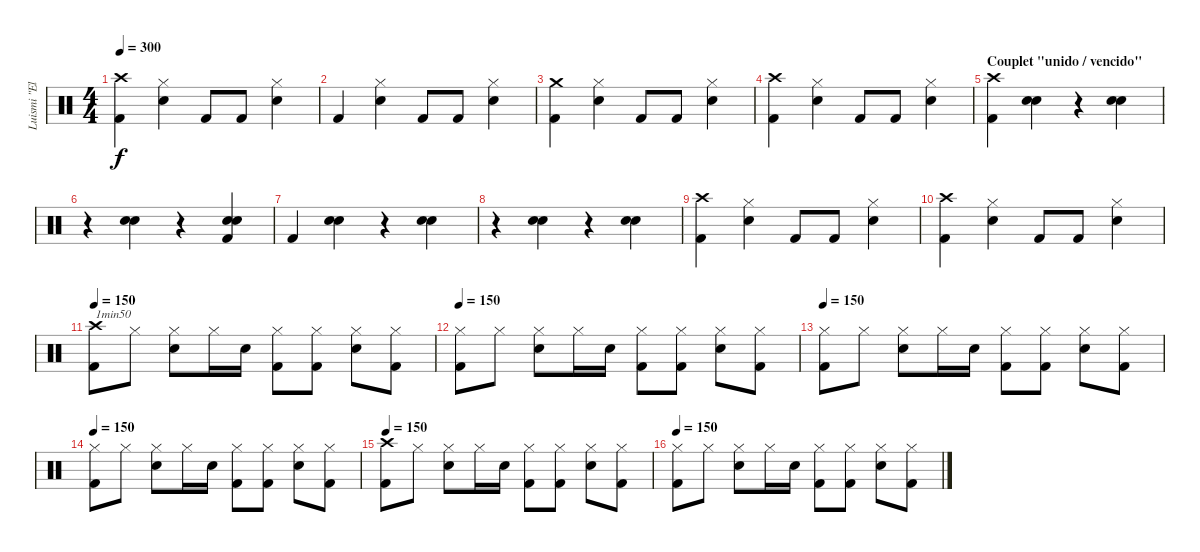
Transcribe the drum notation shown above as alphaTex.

\track ("Luismi \"El Papi\"" "Luismi \"El") {instrument percussion}
\staff {score}
\articulation defaults
\ts (4 4)
\tempo 300
\clef neutral
\ks c
("Crash high (hit)" "Kick (hit) 2").4{dy f} ("Hi-Hat (closed)" "Snare (hit) 2").4 "Kick (hit) 2".8 "Kick (hit) 2".8 ("Hi-Hat (closed)" "Snare (hit) 2").4 |
"Kick (hit) 2".4 ("Hi-Hat (closed)" "Snare (hit) 2").4 "Kick (hit) 2".8 "Kick (hit) 2".8 ("Hi-Hat (closed)" "Snare (hit) 2").4 |
("Crash medium (hit)" "Kick (hit) 2").4 ("Hi-Hat (closed)" "Snare (hit) 2").4 "Kick (hit) 2".8 "Kick (hit) 2".8 ("Hi-Hat (closed)" "Snare (hit) 2").4 |
("Crash high (hit)" "Kick (hit) 2").4 ("Hi-Hat (closed)" "Snare (hit) 2").4 "Kick (hit) 2".8 "Kick (hit) 2".8 ("Hi-Hat (closed)" "Snare (hit) 2").4 |
\section ("" "Couplet \"unido / vencido\"")
("Crash high (hit)" "Kick (hit) 2").4 ("Snare (hit) 2" "Snare (hit) 2").4 r.4 ("Snare (hit) 2" "Snare (hit) 2").4 |
r.4 ("Snare (hit) 2" "Snare (hit) 2").4 r.4 ("Kick (hit) 2" "Snare (hit) 2" "Snare (hit) 2").4 |
"Kick (hit) 2".4 ("Snare (hit) 2" "Snare (hit) 2").4 r.4 ("Snare (hit) 2" "Snare (hit) 2").4 |
r.4 ("Snare (hit) 2" "Snare (hit) 2").4 r.4 ("Snare (hit) 2" "Snare (hit) 2").4 |
("Crash high (hit)" "Kick (hit) 2").4 ("Hi-Hat (closed)" "Snare (hit) 2").4 "Kick (hit) 2".8 "Kick (hit) 2".8 ("Hi-Hat (closed)" "Snare (hit) 2").4 |
("Crash high (hit)" "Kick (hit) 2").4 ("Hi-Hat (closed)" "Snare (hit) 2").4 "Kick (hit) 2".8 "Kick (hit) 2".8 ("Hi-Hat (closed)" "Snare (hit) 2").4 |
\tempo 150
("Crash high (hit)" "Kick (hit) 2").8{txt "1min50"} "Hi-Hat (closed)".8 ("Hi-Hat (closed)" "Snare (hit) 2").8 "Hi-Hat (closed)".16 "Snare (hit) 2".16 ("Hi-Hat (closed)" "Kick (hit) 2").8 ("Hi-Hat (closed)" "Kick (hit) 2").8 ("Hi-Hat (closed)" "Snare (hit) 2").8 ("Hi-Hat (closed)" "Kick (hit) 2").8 |
\tempo 150
("Hi-Hat (closed)" "Kick (hit) 2").8 "Hi-Hat (closed)".8 ("Hi-Hat (closed)" "Snare (hit) 2").8 "Hi-Hat (closed)".16 "Snare (hit) 2".16 ("Hi-Hat (closed)" "Kick (hit) 2").8 ("Hi-Hat (closed)" "Kick (hit) 2").8 ("Hi-Hat (closed)" "Snare (hit) 2").8 ("Hi-Hat (closed)" "Kick (hit) 2").8 |
\tempo 150
("Hi-Hat (closed)" "Kick (hit) 2").8 "Hi-Hat (closed)".8 ("Hi-Hat (closed)" "Snare (hit) 2").8 "Hi-Hat (closed)".16 "Snare (hit) 2".16 ("Hi-Hat (closed)" "Kick (hit) 2").8 ("Hi-Hat (closed)" "Kick (hit) 2").8 ("Hi-Hat (closed)" "Snare (hit) 2").8 ("Hi-Hat (closed)" "Kick (hit) 2").8 |
\tempo 150
("Hi-Hat (closed)" "Kick (hit) 2").8 "Hi-Hat (closed)".8 ("Hi-Hat (closed)" "Snare (hit) 2").8 "Hi-Hat (closed)".16 "Snare (hit) 2".16 ("Hi-Hat (closed)" "Kick (hit) 2").8 ("Hi-Hat (closed)" "Kick (hit) 2").8 ("Hi-Hat (closed)" "Snare (hit) 2").8 ("Hi-Hat (closed)" "Kick (hit) 2").8 |
\tempo 150
("Crash high (hit)" "Kick (hit) 2").8 "Hi-Hat (closed)".8 ("Hi-Hat (closed)" "Snare (hit) 2").8 "Hi-Hat (closed)".16 "Snare (hit) 2".16 ("Hi-Hat (closed)" "Kick (hit) 2").8 ("Hi-Hat (closed)" "Kick (hit) 2").8 ("Hi-Hat (closed)" "Snare (hit) 2").8 ("Hi-Hat (closed)" "Kick (hit) 2").8 |
\tempo 150
("Hi-Hat (closed)" "Kick (hit) 2").8 "Hi-Hat (closed)".8 ("Hi-Hat (closed)" "Snare (hit) 2").8 "Hi-Hat (closed)".16 "Snare (hit) 2".16 ("Hi-Hat (closed)" "Kick (hit) 2").8 ("Hi-Hat (closed)" "Kick (hit) 2").8 ("Hi-Hat (closed)" "Snare (hit) 2").8 ("Hi-Hat (closed)" "Kick (hit) 2").8
